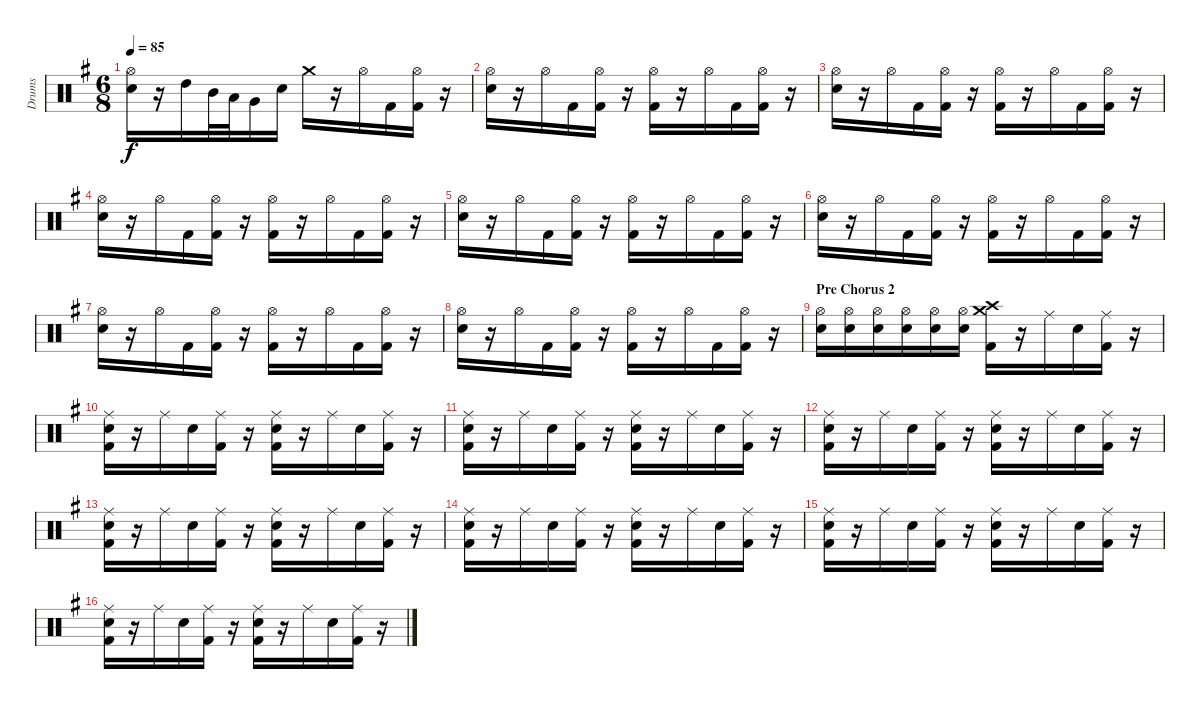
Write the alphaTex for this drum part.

\track ("Drums" "Drums") {instrument percussion}
\staff {score}
\articulation defaults
\ts (6 8)
\tempo 85
\clef neutral
\ks eminor
("Hi-Hat (open)" "Electric Snare (hit)").16{dy f} r.16 "High Tom (hit)".16 "Mid Tom (hit)".32 "Low Tom (hit)".32 "Very Low Tom (hit)".16 "Electric Snare (hit)".16 "Crash medium (hit)".16 r.16 "Hi-Hat (open)".16 "Kick (hit) 2".16 ("Hi-Hat (open)" "Kick (hit) 2").16 r.16 |
("Hi-Hat (open)" "Electric Snare (hit)").16 r.16 "Hi-Hat (open)".16 "Kick (hit) 2".16 ("Hi-Hat (open)" "Kick (hit) 2").16 r.16 ("Hi-Hat (open)" "Kick (hit) 2").16 r.16 "Hi-Hat (open)".16 "Kick (hit) 2".16 ("Hi-Hat (open)" "Kick (hit) 2").16 r.16 |
("Hi-Hat (open)" "Electric Snare (hit)").16 r.16 "Hi-Hat (open)".16 "Kick (hit) 2".16 ("Hi-Hat (open)" "Kick (hit) 2").16 r.16 ("Hi-Hat (open)" "Kick (hit) 2").16 r.16 "Hi-Hat (open)".16 "Kick (hit) 2".16 ("Hi-Hat (open)" "Kick (hit) 2").16 r.16 |
("Hi-Hat (open)" "Electric Snare (hit)").16 r.16 "Hi-Hat (open)".16 "Kick (hit) 2".16 ("Hi-Hat (open)" "Kick (hit) 2").16 r.16 ("Hi-Hat (open)" "Kick (hit) 2").16 r.16 "Hi-Hat (open)".16 "Kick (hit) 2".16 ("Hi-Hat (open)" "Kick (hit) 2").16 r.16 |
("Hi-Hat (open)" "Electric Snare (hit)").16 r.16 "Hi-Hat (open)".16 "Kick (hit) 2".16 ("Hi-Hat (open)" "Kick (hit) 2").16 r.16 ("Hi-Hat (open)" "Kick (hit) 2").16 r.16 "Hi-Hat (open)".16 "Kick (hit) 2".16 ("Hi-Hat (open)" "Kick (hit) 2").16 r.16 |
("Hi-Hat (open)" "Electric Snare (hit)").16 r.16 "Hi-Hat (open)".16 "Kick (hit) 2".16 ("Hi-Hat (open)" "Kick (hit) 2").16 r.16 ("Hi-Hat (open)" "Kick (hit) 2").16 r.16 "Hi-Hat (open)".16 "Kick (hit) 2".16 ("Hi-Hat (open)" "Kick (hit) 2").16 r.16 |
("Hi-Hat (open)" "Electric Snare (hit)").16 r.16 "Hi-Hat (open)".16 "Kick (hit) 2".16 ("Hi-Hat (open)" "Kick (hit) 2").16 r.16 ("Hi-Hat (open)" "Kick (hit) 2").16 r.16 "Hi-Hat (open)".16 "Kick (hit) 2".16 ("Hi-Hat (open)" "Kick (hit) 2").16 r.16 |
("Hi-Hat (open)" "Electric Snare (hit)").16 r.16 "Hi-Hat (open)".16 "Kick (hit) 2".16 ("Hi-Hat (open)" "Kick (hit) 2").16 r.16 ("Hi-Hat (open)" "Kick (hit) 2").16 r.16 "Hi-Hat (open)".16 "Kick (hit) 2".16 ("Hi-Hat (open)" "Kick (hit) 2").16 r.16 |
\section ("" "Pre Chorus 2")
("Hi-Hat (open)" "Electric Snare (hit)").16 ("Hi-Hat (open)" "Electric Snare (hit)").16 ("Hi-Hat (open)" "Electric Snare (hit)").16 ("Hi-Hat (open)" "Electric Snare (hit)").16 ("Hi-Hat (open)" "Electric Snare (hit)").16 ("Hi-Hat (open)" "Electric Snare (hit)").16 ("Crash medium (hit)" "Crash high (hit)" "Kick (hit) 2").16 r.16 "Ride (middle)".16 "Electric Snare (hit)".16 ("Ride (middle)" "Kick (hit) 2").16 r.16 |
("Ride (middle)" "Electric Snare (hit)" "Kick (hit) 2").16 r.16 "Ride (middle)".16 "Electric Snare (hit)".16 ("Ride (middle)" "Kick (hit) 2").16 r.16 ("Ride (middle)" "Electric Snare (hit)" "Kick (hit) 2").16 r.16 "Ride (middle)".16 "Electric Snare (hit)".16 ("Ride (middle)" "Kick (hit) 2").16 r.16 |
("Ride (middle)" "Electric Snare (hit)" "Kick (hit) 2").16 r.16 "Ride (middle)".16 "Electric Snare (hit)".16 ("Ride (middle)" "Kick (hit) 2").16 r.16 ("Ride (middle)" "Electric Snare (hit)" "Kick (hit) 2").16 r.16 "Ride (middle)".16 "Electric Snare (hit)".16 ("Ride (middle)" "Kick (hit) 2").16 r.16 |
("Ride (middle)" "Electric Snare (hit)" "Kick (hit) 2").16 r.16 "Ride (middle)".16 "Electric Snare (hit)".16 ("Ride (middle)" "Kick (hit) 2").16 r.16 ("Ride (middle)" "Electric Snare (hit)" "Kick (hit) 2").16 r.16 "Ride (middle)".16 "Electric Snare (hit)".16 ("Ride (middle)" "Kick (hit) 2").16 r.16 |
("Ride (middle)" "Electric Snare (hit)" "Kick (hit) 2").16 r.16 "Ride (middle)".16 "Electric Snare (hit)".16 ("Ride (middle)" "Kick (hit) 2").16 r.16 ("Ride (middle)" "Electric Snare (hit)" "Kick (hit) 2").16 r.16 "Ride (middle)".16 "Electric Snare (hit)".16 ("Ride (middle)" "Kick (hit) 2").16 r.16 |
("Ride (middle)" "Electric Snare (hit)" "Kick (hit) 2").16 r.16 "Ride (middle)".16 "Electric Snare (hit)".16 ("Ride (middle)" "Kick (hit) 2").16 r.16 ("Ride (middle)" "Electric Snare (hit)" "Kick (hit) 2").16 r.16 "Ride (middle)".16 "Electric Snare (hit)".16 ("Ride (middle)" "Kick (hit) 2").16 r.16 |
("Ride (middle)" "Electric Snare (hit)" "Kick (hit) 2").16 r.16 "Ride (middle)".16 "Electric Snare (hit)".16 ("Ride (middle)" "Kick (hit) 2").16 r.16 ("Ride (middle)" "Electric Snare (hit)" "Kick (hit) 2").16 r.16 "Ride (middle)".16 "Electric Snare (hit)".16 ("Ride (middle)" "Kick (hit) 2").16 r.16 |
("Ride (middle)" "Electric Snare (hit)" "Kick (hit) 2").16 r.16 "Ride (middle)".16 "Electric Snare (hit)".16 ("Ride (middle)" "Kick (hit) 2").16 r.16 ("Ride (middle)" "Electric Snare (hit)" "Kick (hit) 2").16 r.16 "Ride (middle)".16 "Electric Snare (hit)".16 ("Ride (middle)" "Kick (hit) 2").16 r.16
